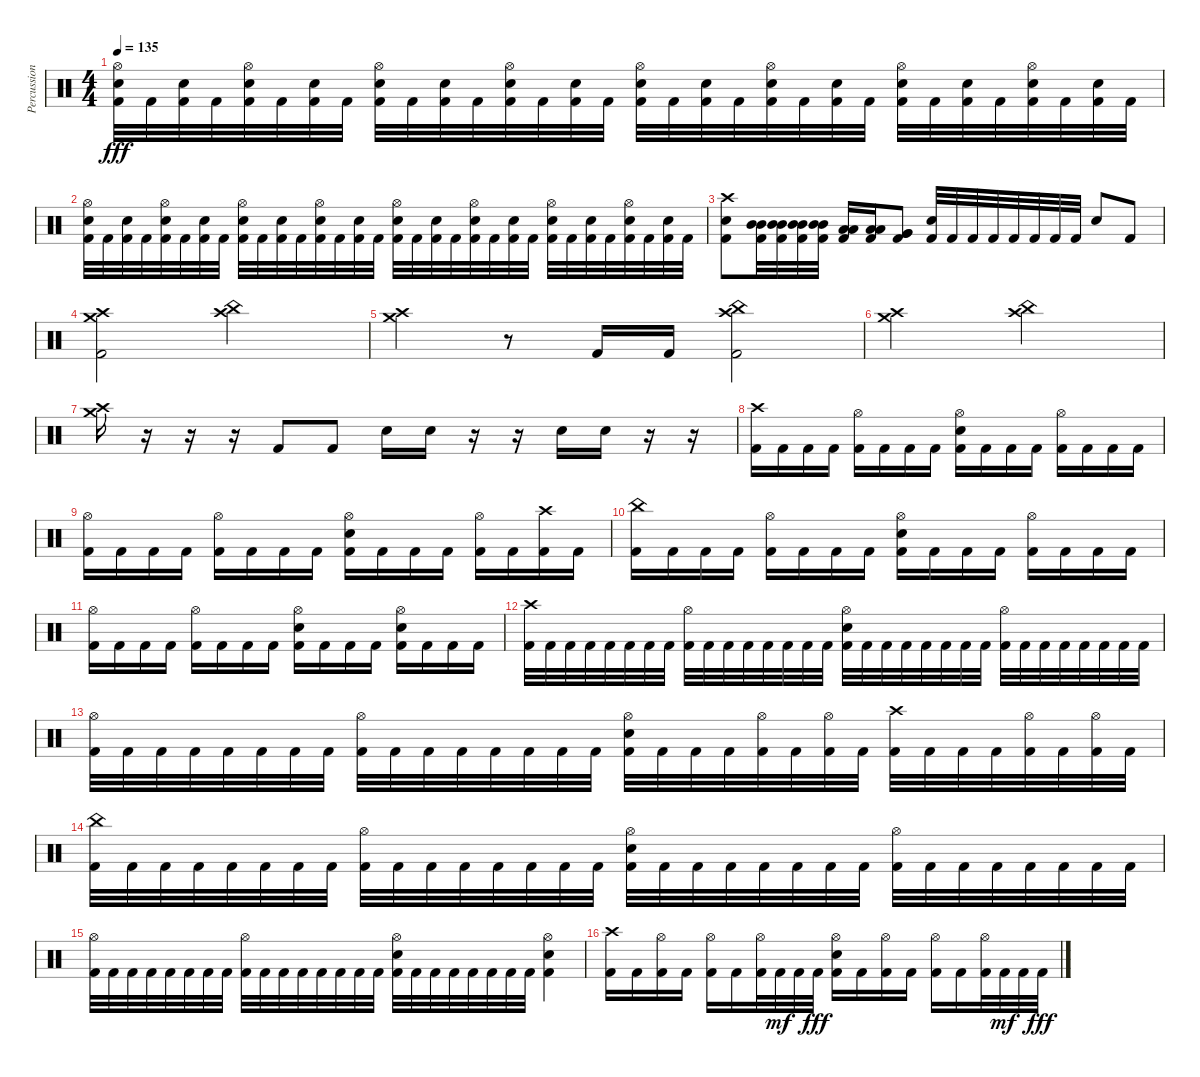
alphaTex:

\track ("Percussion" "Percussion") {instrument percussion bank 16}
\staff {score}
\articulation defaults
\ts (4 4)
\tempo 135
\clef neutral
\ks c
("Hi-Hat (open)" "Electric Snare (hit)" "Kick (hit) 2").32{dy fff} "Kick (hit) 2".32 ("Electric Snare (hit)" "Kick (hit) 2").32 "Kick (hit) 2".32 ("Hi-Hat (open)" "Electric Snare (hit)" "Kick (hit) 2").32 "Kick (hit) 2".32 ("Electric Snare (hit)" "Kick (hit) 2").32 "Kick (hit) 2".32 ("Hi-Hat (open)" "Electric Snare (hit)" "Kick (hit) 2").32 "Kick (hit) 2".32 ("Electric Snare (hit)" "Kick (hit) 2").32 "Kick (hit) 2".32 ("Hi-Hat (open)" "Electric Snare (hit)" "Kick (hit) 2").32 "Kick (hit) 2".32 ("Electric Snare (hit)" "Kick (hit) 2").32 "Kick (hit) 2".32 ("Hi-Hat (open)" "Electric Snare (hit)" "Kick (hit) 2").32 "Kick (hit) 2".32 ("Electric Snare (hit)" "Kick (hit) 2").32 "Kick (hit) 2".32 ("Hi-Hat (open)" "Electric Snare (hit)" "Kick (hit) 2").32 "Kick (hit) 2".32 ("Electric Snare (hit)" "Kick (hit) 2").32 "Kick (hit) 2".32 ("Hi-Hat (open)" "Electric Snare (hit)" "Kick (hit) 2").32 "Kick (hit) 2".32 ("Electric Snare (hit)" "Kick (hit) 2").32 "Kick (hit) 2".32 ("Hi-Hat (open)" "Electric Snare (hit)" "Kick (hit) 2").32 "Kick (hit) 2".32 ("Electric Snare (hit)" "Kick (hit) 2").32 "Kick (hit) 2".32 |
("Hi-Hat (open)" "Electric Snare (hit)" "Kick (hit) 2").32 "Kick (hit) 2".32 ("Electric Snare (hit)" "Kick (hit) 2").32 "Kick (hit) 2".32 ("Hi-Hat (open)" "Electric Snare (hit)" "Kick (hit) 2").32 "Kick (hit) 2".32 ("Electric Snare (hit)" "Kick (hit) 2").32 "Kick (hit) 2".32 ("Hi-Hat (open)" "Electric Snare (hit)" "Kick (hit) 2").32 "Kick (hit) 2".32 ("Electric Snare (hit)" "Kick (hit) 2").32 "Kick (hit) 2".32 ("Hi-Hat (open)" "Electric Snare (hit)" "Kick (hit) 2").32 "Kick (hit) 2".32 ("Electric Snare (hit)" "Kick (hit) 2").32 "Kick (hit) 2".32 ("Hi-Hat (open)" "Electric Snare (hit)" "Kick (hit) 2").32 "Kick (hit) 2".32 ("Electric Snare (hit)" "Kick (hit) 2").32 "Kick (hit) 2".32 ("Hi-Hat (open)" "Electric Snare (hit)" "Kick (hit) 2").32 "Kick (hit) 2".32 ("Electric Snare (hit)" "Kick (hit) 2").32 "Kick (hit) 2".32 ("Hi-Hat (open)" "Electric Snare (hit)" "Kick (hit) 2").32 "Kick (hit) 2".32 ("Electric Snare (hit)" "Kick (hit) 2").32 "Kick (hit) 2".32 ("Hi-Hat (open)" "Electric Snare (hit)" "Kick (hit) 2").32 "Kick (hit) 2".32 ("Electric Snare (hit)" "Kick (hit) 2").32 "Kick (hit) 2".32 |
("Crash high (hit)" "Electric Snare (hit)" "Kick (hit) 2").8 ("Mid Tom (hit)" "Mid Tom (hit)" "Kick (hit) 2").32 ("Mid Tom (hit)" "Mid Tom (hit)" "Kick (hit) 2").32 ("Mid Tom (hit)" "Mid Tom (hit)" "Kick (hit) 2").32 ("Mid Tom (hit)" "Mid Tom (hit)" "Kick (hit) 2").32 ("Low Tom (hit)" "Low Tom (hit)" "Kick (hit) 2").16 ("Low Tom (hit)" "Low Tom (hit)" "Kick (hit) 2").16 ("Very Low Tom (hit)" "Very Low Tom (hit)" "Kick (hit) 2").8 ("Electric Snare (hit)" "Kick (hit) 2").32 "Kick (hit) 2".32 "Kick (hit) 2".32 "Kick (hit) 2".32 "Kick (hit) 2".32 "Kick (hit) 2".32 "Kick (hit) 2".32 "Kick (hit) 2".32 "Electric Snare (hit)".8 "Kick (hit) 2".8 |
("Crash high (hit)" "Crash medium (hit)" "Kick (hit) 2").2 ("China (hit)" "Crash high (hit)").2 |
("Crash high (hit)" "Crash medium (hit)").4 r.8 "Kick (hit) 2".16 "Kick (hit) 2".16 ("China (hit)" "Crash high (hit)" "Kick (hit) 2").2 |
("Crash high (hit)" "Crash medium (hit)").2 ("China (hit)" "Crash high (hit)").2 |
("Crash high (hit)" "Crash medium (hit)").16 r.16 r.16 r.16 "Kick (hit) 2".8 "Kick (hit) 2".8 "Electric Snare (hit)".16 "Electric Snare (hit)".16 r.16 r.16 "Electric Snare (hit)".16 "Electric Snare (hit)".16 r.16 r.16 |
("Crash high (hit)" "Kick (hit) 2").16 "Kick (hit) 2".16 "Kick (hit) 2".16 "Kick (hit) 2".16 ("Hi-Hat (open)" "Kick (hit) 2").16 "Kick (hit) 2".16 "Kick (hit) 2".16 "Kick (hit) 2".16 ("Hi-Hat (open)" "Electric Snare (hit)" "Kick (hit) 2").16 "Kick (hit) 2".16 "Kick (hit) 2".16 "Kick (hit) 2".16 ("Hi-Hat (open)" "Kick (hit) 2").16 "Kick (hit) 2".16 "Kick (hit) 2".16 "Kick (hit) 2".16 |
("Hi-Hat (open)" "Kick (hit) 2").16 "Kick (hit) 2".16 "Kick (hit) 2".16 "Kick (hit) 2".16 ("Hi-Hat (open)" "Kick (hit) 2").16 "Kick (hit) 2".16 "Kick (hit) 2".16 "Kick (hit) 2".16 ("Hi-Hat (open)" "Electric Snare (hit)" "Kick (hit) 2").16 "Kick (hit) 2".16 "Kick (hit) 2".16 "Kick (hit) 2".16 ("Hi-Hat (open)" "Kick (hit) 2").16 "Kick (hit) 2".16 ("Crash high (hit)" "Kick (hit) 2").16 "Kick (hit) 2".16 |
("China (hit)" "Kick (hit) 2").16 "Kick (hit) 2".16 "Kick (hit) 2".16 "Kick (hit) 2".16 ("Hi-Hat (open)" "Kick (hit) 2").16 "Kick (hit) 2".16 "Kick (hit) 2".16 "Kick (hit) 2".16 ("Hi-Hat (open)" "Electric Snare (hit)" "Kick (hit) 2").16 "Kick (hit) 2".16 "Kick (hit) 2".16 "Kick (hit) 2".16 ("Hi-Hat (open)" "Kick (hit) 2").16 "Kick (hit) 2".16 "Kick (hit) 2".16 "Kick (hit) 2".16 |
("Hi-Hat (open)" "Kick (hit) 2").16 "Kick (hit) 2".16 "Kick (hit) 2".16 "Kick (hit) 2".16 ("Hi-Hat (open)" "Kick (hit) 2").16 "Kick (hit) 2".16 "Kick (hit) 2".16 "Kick (hit) 2".16 ("Hi-Hat (open)" "Electric Snare (hit)" "Kick (hit) 2").16 "Kick (hit) 2".16 "Kick (hit) 2".16 "Kick (hit) 2".16 ("Hi-Hat (open)" "Electric Snare (hit)" "Kick (hit) 2").16 "Kick (hit) 2".16 "Kick (hit) 2".16 "Kick (hit) 2".16 |
("Crash high (hit)" "Kick (hit) 2").32 "Kick (hit) 2".32 "Kick (hit) 2".32 "Kick (hit) 2".32 "Kick (hit) 2".32 "Kick (hit) 2".32 "Kick (hit) 2".32 "Kick (hit) 2".32 ("Hi-Hat (open)" "Kick (hit) 2").32 "Kick (hit) 2".32 "Kick (hit) 2".32 "Kick (hit) 2".32 "Kick (hit) 2".32 "Kick (hit) 2".32 "Kick (hit) 2".32 "Kick (hit) 2".32 ("Hi-Hat (open)" "Electric Snare (hit)" "Kick (hit) 2").32 "Kick (hit) 2".32 "Kick (hit) 2".32 "Kick (hit) 2".32 "Kick (hit) 2".32 "Kick (hit) 2".32 "Kick (hit) 2".32 "Kick (hit) 2".32 ("Hi-Hat (open)" "Kick (hit) 2").32 "Kick (hit) 2".32 "Kick (hit) 2".32 "Kick (hit) 2".32 "Kick (hit) 2".32 "Kick (hit) 2".32 "Kick (hit) 2".32 "Kick (hit) 2".32 |
("Hi-Hat (open)" "Kick (hit) 2").32 "Kick (hit) 2".32 "Kick (hit) 2".32 "Kick (hit) 2".32 "Kick (hit) 2".32 "Kick (hit) 2".32 "Kick (hit) 2".32 "Kick (hit) 2".32 ("Hi-Hat (open)" "Kick (hit) 2").32 "Kick (hit) 2".32 "Kick (hit) 2".32 "Kick (hit) 2".32 "Kick (hit) 2".32 "Kick (hit) 2".32 "Kick (hit) 2".32 "Kick (hit) 2".32 ("Hi-Hat (open)" "Electric Snare (hit)" "Kick (hit) 2").32 "Kick (hit) 2".32 "Kick (hit) 2".32 "Kick (hit) 2".32 ("Hi-Hat (open)" "Kick (hit) 2").32 "Kick (hit) 2".32 ("Hi-Hat (open)" "Kick (hit) 2").32 "Kick (hit) 2".32 ("Crash high (hit)" "Kick (hit) 2").32 "Kick (hit) 2".32 "Kick (hit) 2".32 "Kick (hit) 2".32 ("Hi-Hat (open)" "Kick (hit) 2").32 "Kick (hit) 2".32 ("Hi-Hat (open)" "Kick (hit) 2").32 "Kick (hit) 2".32 |
("China (hit)" "Kick (hit) 2").32 "Kick (hit) 2".32 "Kick (hit) 2".32 "Kick (hit) 2".32 "Kick (hit) 2".32 "Kick (hit) 2".32 "Kick (hit) 2".32 "Kick (hit) 2".32 ("Hi-Hat (open)" "Kick (hit) 2").32 "Kick (hit) 2".32 "Kick (hit) 2".32 "Kick (hit) 2".32 "Kick (hit) 2".32 "Kick (hit) 2".32 "Kick (hit) 2".32 "Kick (hit) 2".32 ("Hi-Hat (open)" "Electric Snare (hit)" "Kick (hit) 2").32 "Kick (hit) 2".32 "Kick (hit) 2".32 "Kick (hit) 2".32 "Kick (hit) 2".32 "Kick (hit) 2".32 "Kick (hit) 2".32 "Kick (hit) 2".32 ("Hi-Hat (open)" "Kick (hit) 2").32 "Kick (hit) 2".32 "Kick (hit) 2".32 "Kick (hit) 2".32 "Kick (hit) 2".32 "Kick (hit) 2".32 "Kick (hit) 2".32 "Kick (hit) 2".32 |
("Hi-Hat (open)" "Kick (hit) 2").32 "Kick (hit) 2".32 "Kick (hit) 2".32 "Kick (hit) 2".32 "Kick (hit) 2".32 "Kick (hit) 2".32 "Kick (hit) 2".32 "Kick (hit) 2".32 ("Hi-Hat (open)" "Kick (hit) 2").32 "Kick (hit) 2".32 "Kick (hit) 2".32 "Kick (hit) 2".32 "Kick (hit) 2".32 "Kick (hit) 2".32 "Kick (hit) 2".32 "Kick (hit) 2".32 ("Hi-Hat (open)" "Electric Snare (hit)" "Kick (hit) 2").32 "Kick (hit) 2".32 "Kick (hit) 2".32 "Kick (hit) 2".32 "Kick (hit) 2".32 "Kick (hit) 2".32 "Kick (hit) 2".32 "Kick (hit) 2".32 ("Hi-Hat (open)" "Electric Snare (hit)" "Kick (hit) 2").4 |
("Crash high (hit)" "Kick (hit) 2").16 "Kick (hit) 2".16 ("Hi-Hat (open)" "Kick (hit) 2").16 "Kick (hit) 2".16 ("Hi-Hat (open)" "Kick (hit) 2").16 "Kick (hit) 2".16 ("Hi-Hat (open)" "Kick (hit) 2").32 "Kick (hit) 2".32{dy mf} "Kick (hit) 2".32 "Kick (hit) 2".32{dy fff} ("Hi-Hat (open)" "Electric Snare (hit)" "Kick (hit) 2").16 "Kick (hit) 2".16 ("Hi-Hat (open)" "Kick (hit) 2").16 "Kick (hit) 2".16 ("Hi-Hat (open)" "Kick (hit) 2").16 "Kick (hit) 2".16 ("Hi-Hat (open)" "Kick (hit) 2").32 "Kick (hit) 2".32{dy mf} "Kick (hit) 2".32 "Kick (hit) 2".32{dy fff}
